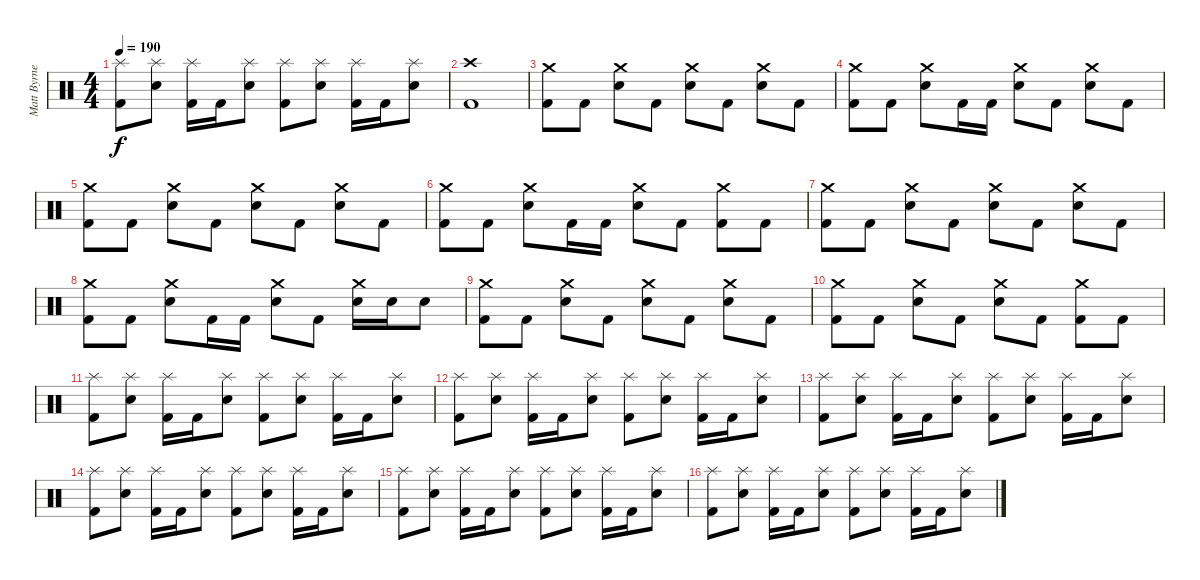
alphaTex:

\track ("Matt Byrne (Drums)" "Matt Byrne") {instrument percussion}
\staff {score}
\articulation defaults
\ts (4 4)
\tempo 190
\clef neutral
\ks c
("Splash (hit)" "Kick (hit) 2").8{dy f} ("Splash (hit)" "Snare (hit) 2").8 ("Splash (hit)" "Kick (hit) 2").16 "Kick (hit) 2".16 ("Splash (hit)" "Snare (hit) 2").8 ("Splash (hit)" "Kick (hit) 2").8 ("Splash (hit)" "Snare (hit) 2").8 ("Splash (hit)" "Kick (hit) 2").16 "Kick (hit) 2".16 ("Splash (hit)" "Snare (hit) 2").8 |
("Crash high (hit)" "Kick (hit) 2").1 |
("Crash medium (hit)" "Kick (hit) 2").8 "Kick (hit) 2".8 ("Crash medium (hit)" "Snare (hit)"{x}).8 "Kick (hit) 2".8 ("Crash medium (hit)" "Snare (hit) 2").8 "Kick (hit) 2".8 ("Crash medium (hit)" "Snare (hit)"{x}).8 "Kick (hit) 2".8 |
("Crash medium (hit)" "Kick (hit) 2").8 "Kick (hit) 2".8 ("Crash medium (hit)" "Snare (hit)"{x}).8 "Kick (hit) 2".16 "Kick (hit) 2".16 ("Crash medium (hit)" "Snare (hit) 2").8 "Kick (hit) 2".8 ("Crash medium (hit)" "Snare (hit) 2").8 "Kick (hit) 2".8 |
("Crash medium (hit)" "Kick (hit) 2").8 "Kick (hit) 2".8 ("Crash medium (hit)" "Snare (hit)"{x}).8 "Kick (hit) 2".8 ("Crash medium (hit)" "Snare (hit) 2").8 "Kick (hit) 2".8 ("Crash medium (hit)" "Snare (hit)"{x}).8 "Kick (hit) 2".8 |
("Crash medium (hit)" "Kick (hit) 2").8 "Kick (hit) 2".8 ("Crash medium (hit)" "Snare (hit)"{x}).8 "Kick (hit) 2".16 "Kick (hit) 2".16 ("Crash medium (hit)" "Snare (hit) 2").8 "Kick (hit) 2".8 ("Crash medium (hit)" "Kick (hit) 2").8 "Kick (hit) 2".8 |
("Crash medium (hit)" "Kick (hit) 2").8 "Kick (hit) 2".8 ("Crash medium (hit)" "Snare (hit)"{x}).8 "Kick (hit) 2".8 ("Crash medium (hit)" "Snare (hit) 2").8 "Kick (hit) 2".8 ("Crash medium (hit)" "Snare (hit)"{x}).8 "Kick (hit) 2".8 |
("Crash medium (hit)" "Kick (hit) 2").8 "Kick (hit) 2".8 ("Crash medium (hit)" "Snare (hit)"{x}).8 "Kick (hit) 2".16 "Kick (hit) 2".16 ("Crash medium (hit)" "Snare (hit) 2").8 "Kick (hit) 2".8 ("Crash medium (hit)" "Snare (hit) 2").16 "Snare (hit) 2".16 "Snare (hit) 2".8 |
("Crash medium (hit)" "Kick (hit) 2").8 "Kick (hit) 2".8 ("Crash medium (hit)" "Snare (hit)"{x}).8 "Kick (hit) 2".8 ("Crash medium (hit)" "Snare (hit) 2").8 "Kick (hit) 2".8 ("Crash medium (hit)" "Snare (hit)"{x}).8 "Kick (hit) 2".8 |
("Crash medium (hit)" "Kick (hit) 2").8 "Kick (hit) 2".8 ("Crash medium (hit)" "Snare (hit)"{x}).8 "Kick (hit) 2".8 ("Crash medium (hit)" "Snare (hit) 2").8 "Kick (hit) 2".8 ("Crash medium (hit)" "Kick (hit) 2").8 "Kick (hit) 2".8 |
("Splash (hit)" "Kick (hit) 2").8 ("Splash (hit)" "Snare (hit) 2").8 ("Splash (hit)" "Kick (hit) 2").16 "Kick (hit) 2".16 ("Splash (hit)" "Snare (hit) 2").8 ("Splash (hit)" "Kick (hit) 2").8 ("Splash (hit)" "Snare (hit) 2").8 ("Splash (hit)" "Kick (hit) 2").16 "Kick (hit) 2".16 ("Splash (hit)" "Snare (hit) 2").8 |
("Splash (hit)" "Kick (hit) 2").8 ("Splash (hit)" "Snare (hit) 2").8 ("Splash (hit)" "Kick (hit) 2").16 "Kick (hit) 2".16 ("Splash (hit)" "Snare (hit) 2").8 ("Splash (hit)" "Kick (hit) 2").8 ("Splash (hit)" "Snare (hit) 2").8 ("Splash (hit)" "Kick (hit) 2").16 "Kick (hit) 2".16 ("Splash (hit)" "Snare (hit) 2").8 |
("Splash (hit)" "Kick (hit) 2").8 ("Splash (hit)" "Snare (hit) 2").8 ("Splash (hit)" "Kick (hit) 2").16 "Kick (hit) 2".16 ("Splash (hit)" "Snare (hit) 2").8 ("Splash (hit)" "Kick (hit) 2").8 ("Splash (hit)" "Snare (hit) 2").8 ("Splash (hit)" "Kick (hit) 2").16 "Kick (hit) 2".16 ("Splash (hit)" "Snare (hit) 2").8 |
("Splash (hit)" "Kick (hit) 2").8 ("Splash (hit)" "Snare (hit) 2").8 ("Splash (hit)" "Kick (hit) 2").16 "Kick (hit) 2".16 ("Splash (hit)" "Snare (hit) 2").8 ("Splash (hit)" "Kick (hit) 2").8 ("Splash (hit)" "Snare (hit) 2").8 ("Splash (hit)" "Kick (hit) 2").16 "Kick (hit) 2".16 ("Splash (hit)" "Snare (hit) 2").8 |
("Splash (hit)" "Kick (hit) 2").8 ("Splash (hit)" "Snare (hit) 2").8 ("Splash (hit)" "Kick (hit) 2").16 "Kick (hit) 2".16 ("Splash (hit)" "Snare (hit) 2").8 ("Splash (hit)" "Kick (hit) 2").8 ("Splash (hit)" "Snare (hit) 2").8 ("Splash (hit)" "Kick (hit) 2").16 "Kick (hit) 2".16 ("Splash (hit)" "Snare (hit) 2").8 |
("Splash (hit)" "Kick (hit) 2").8 ("Splash (hit)" "Snare (hit) 2").8 ("Splash (hit)" "Kick (hit) 2").16 "Kick (hit) 2".16 ("Splash (hit)" "Snare (hit) 2").8 ("Splash (hit)" "Kick (hit) 2").8 ("Splash (hit)" "Snare (hit) 2").8 ("Splash (hit)" "Kick (hit) 2").16 "Kick (hit) 2".16 ("Splash (hit)" "Snare (hit) 2").8
